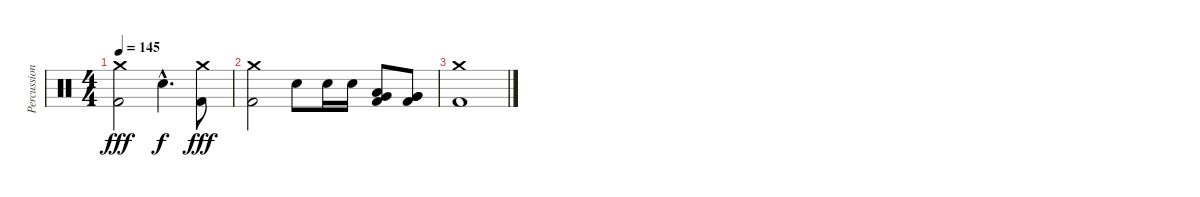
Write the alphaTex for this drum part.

\track ("Percussion" "Percussion") {instrument percussion}
\staff {score}
\articulation defaults
\ts (4 4)
\tempo 145
\clef neutral
\ks c
("Crash medium (hit)" "Kick (hit) 2").2{dy fff} "Snare (hit) 2"{hac}.4{d dy f} ("Crash medium (hit)" "Kick (hit) 2").8{dy fff} |
("Crash medium (hit)" "Kick (hit) 2").2 "Snare (hit) 2".8 "Snare (hit) 2".16 "Snare (hit) 2".16 ("Very Low Tom (hit)" "Low Tom (hit)" "Kick (hit) 2").8 ("Very Low Tom (hit)" "Very Low Tom (hit)" "Kick (hit) 2").8 |
("Crash medium (hit)" "Kick (hit) 2").1
